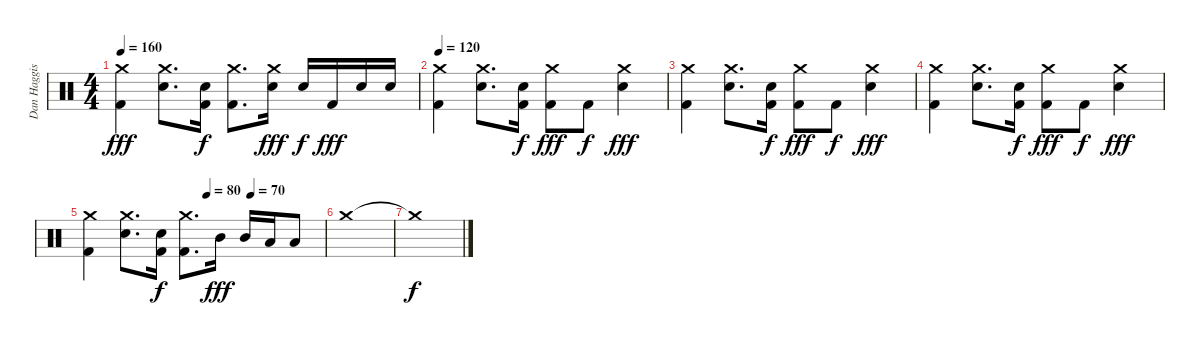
\track ("Dan Haggis" "Dan Haggis") {instrument percussion}
\staff {score}
\articulation defaults
\ts (4 4)
\tempo 160
\clef neutral
\ks c
("Crash medium (hit)" "Kick (hit) 2").4{dy fff} ("Crash medium (hit)" "Electric Snare (hit)").8{d} ("Kick (hit) 2" "Electric Snare (hit)").16{dy f} ("Crash medium (hit)" "Kick (hit) 2").8{d} ("Crash medium (hit)" "Electric Snare (hit)").16{dy fff} "Electric Snare (hit)".16{dy f} "Kick (hit) 2".16{dy fff} "Electric Snare (hit)".16 "Electric Snare (hit)".16 |
\tempo 120
("Crash medium (hit)" "Kick (hit) 2").4 ("Crash medium (hit)" "Electric Snare (hit)").8{d} ("Kick (hit) 2" "Electric Snare (hit)").16{dy f} ("Crash medium (hit)" "Kick (hit) 2").8{dy fff} "Kick (hit) 2".8{dy f} ("Crash medium (hit)" "Electric Snare (hit)").4{dy fff} |
("Crash medium (hit)" "Kick (hit) 2").4 ("Crash medium (hit)" "Electric Snare (hit)").8{d} ("Kick (hit) 2" "Electric Snare (hit)").16{dy f} ("Crash medium (hit)" "Kick (hit) 2").8{dy fff} "Kick (hit) 2".8{dy f} ("Crash medium (hit)" "Electric Snare (hit)").4{dy fff} |
("Crash medium (hit)" "Kick (hit) 2").4 ("Crash medium (hit)" "Electric Snare (hit)").8{d} ("Kick (hit) 2" "Electric Snare (hit)").16{dy f} ("Crash medium (hit)" "Kick (hit) 2").8{dy fff} "Kick (hit) 2".8{dy f} ("Crash medium (hit)" "Electric Snare (hit)").4{dy fff} |
\tempo (80 0.5)
\tempo (70 0.6875)
("Crash medium (hit)" "Kick (hit) 2").4 ("Crash medium (hit)" "Electric Snare (hit)").8{d} ("Kick (hit) 2" "Electric Snare (hit)").16{dy f} ("Crash medium (hit)" "Kick (hit) 2").8{d} "Mid Tom (hit)".16{dy fff} "Mid Tom (hit)".16 "Low Tom (hit)".16 "Low Tom (hit)".8 |
"Crash medium (hit)".1 |
"Crash medium (hit)"{t}.1{dy f}
